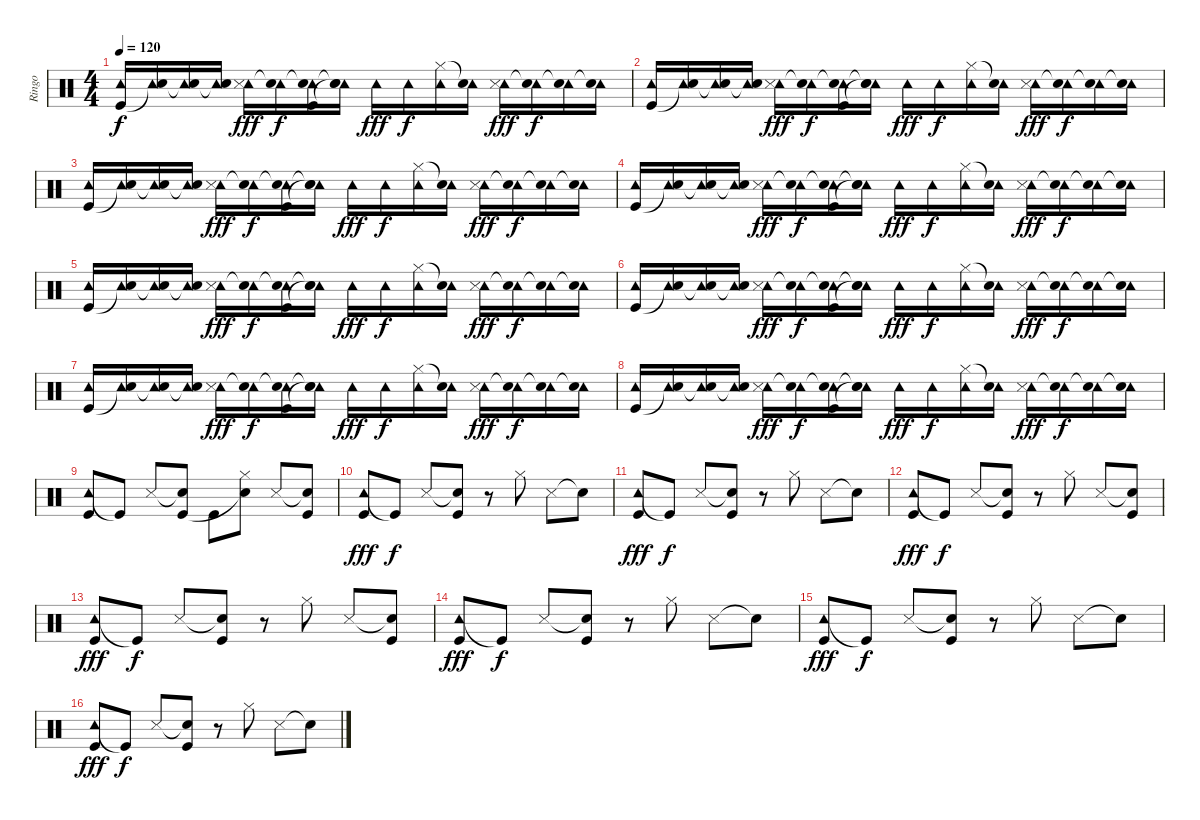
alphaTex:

\track ("Ringo" "Ringo") {instrument percussion}
\staff {score}
\articulation defaults
\ts (4 4)
\tempo 120
\clef neutral
\ks c
("Tambourine (hit)" "Kick (hit)").16{dy f} ("Tambourine (hit)" "Snare (hit)"{t}).16 ("Tambourine (hit)" "Snare (hit)"{t}).16 ("Tambourine (hit)" "Snare (hit)"{t}).16 ("Tambourine (hit)" "Snare (side stick) 3").16{dy fff} ("Tambourine (hit)" "Snare (hit)"{t}).16{dy f} ("Tambourine (hit)" "Snare (hit)"{t} "Kick (hit)").16 ("Tambourine (hit)" "Snare (hit)"{t} "Snare (hit)"{t}).16 "Tambourine (hit)".16{dy fff} "Tambourine (hit)".16{dy f} ("Tambourine (hit)" "Hi-Hat (closed)").16 ("Tambourine (hit)" "Snare (hit)"{t}).16 ("Tambourine (hit)" "Snare (side stick) 3").16{dy fff} ("Tambourine (hit)" "Snare (hit)"{t}).16{dy f} ("Tambourine (hit)" "Snare (hit)"{t}).16 ("Tambourine (hit)" "Snare (hit)"{t}).16 |
("Tambourine (hit)" "Kick (hit)").16 ("Tambourine (hit)" "Snare (hit)"{t}).16 ("Tambourine (hit)" "Snare (hit)"{t}).16 ("Tambourine (hit)" "Snare (hit)"{t}).16 ("Tambourine (hit)" "Snare (side stick) 3").16{dy fff} ("Tambourine (hit)" "Snare (hit)"{t}).16{dy f} ("Tambourine (hit)" "Snare (hit)"{t} "Kick (hit)").16 ("Tambourine (hit)" "Snare (hit)"{t} "Snare (hit)"{t}).16 "Tambourine (hit)".16{dy fff} "Tambourine (hit)".16{dy f} ("Tambourine (hit)" "Hi-Hat (closed)").16 ("Tambourine (hit)" "Snare (hit)"{t}).16 ("Tambourine (hit)" "Snare (side stick) 3").16{dy fff} ("Tambourine (hit)" "Snare (hit)"{t}).16{dy f} ("Tambourine (hit)" "Snare (hit)"{t}).16 ("Tambourine (hit)" "Snare (hit)"{t}).16 |
("Tambourine (hit)" "Kick (hit)").16 ("Tambourine (hit)" "Snare (hit)"{t}).16 ("Tambourine (hit)" "Snare (hit)"{t}).16 ("Tambourine (hit)" "Snare (hit)"{t}).16 ("Tambourine (hit)" "Snare (side stick) 3").16{dy fff} ("Tambourine (hit)" "Snare (hit)"{t}).16{dy f} ("Tambourine (hit)" "Snare (hit)"{t} "Kick (hit)").16 ("Tambourine (hit)" "Snare (hit)"{t} "Snare (hit)"{t}).16 "Tambourine (hit)".16{dy fff} "Tambourine (hit)".16{dy f} ("Tambourine (hit)" "Hi-Hat (closed)").16 ("Tambourine (hit)" "Snare (hit)"{t}).16 ("Tambourine (hit)" "Snare (side stick) 3").16{dy fff} ("Tambourine (hit)" "Snare (hit)"{t}).16{dy f} ("Tambourine (hit)" "Snare (hit)"{t}).16 ("Tambourine (hit)" "Snare (hit)"{t}).16 |
("Tambourine (hit)" "Kick (hit)").16 ("Tambourine (hit)" "Snare (hit)"{t}).16 ("Tambourine (hit)" "Snare (hit)"{t}).16 ("Tambourine (hit)" "Snare (hit)"{t}).16 ("Tambourine (hit)" "Snare (side stick) 3").16{dy fff} ("Tambourine (hit)" "Snare (hit)"{t}).16{dy f} ("Tambourine (hit)" "Snare (hit)"{t} "Kick (hit)").16 ("Tambourine (hit)" "Snare (hit)"{t} "Snare (hit)"{t}).16 "Tambourine (hit)".16{dy fff} "Tambourine (hit)".16{dy f} ("Tambourine (hit)" "Hi-Hat (closed)").16 ("Tambourine (hit)" "Snare (hit)"{t}).16 ("Tambourine (hit)" "Snare (side stick) 3").16{dy fff} ("Tambourine (hit)" "Snare (hit)"{t}).16{dy f} ("Tambourine (hit)" "Snare (hit)"{t}).16 ("Tambourine (hit)" "Snare (hit)"{t}).16 |
("Tambourine (hit)" "Kick (hit)").16 ("Tambourine (hit)" "Snare (hit)"{t}).16 ("Tambourine (hit)" "Snare (hit)"{t}).16 ("Tambourine (hit)" "Snare (hit)"{t}).16 ("Tambourine (hit)" "Snare (side stick) 3").16{dy fff} ("Tambourine (hit)" "Snare (hit)"{t}).16{dy f} ("Tambourine (hit)" "Snare (hit)"{t} "Kick (hit)").16 ("Tambourine (hit)" "Snare (hit)"{t} "Snare (hit)"{t}).16 "Tambourine (hit)".16{dy fff} "Tambourine (hit)".16{dy f} ("Tambourine (hit)" "Hi-Hat (closed)").16 ("Tambourine (hit)" "Snare (hit)"{t}).16 ("Tambourine (hit)" "Snare (side stick) 3").16{dy fff} ("Tambourine (hit)" "Snare (hit)"{t}).16{dy f} ("Tambourine (hit)" "Snare (hit)"{t}).16 ("Tambourine (hit)" "Snare (hit)"{t}).16 |
("Tambourine (hit)" "Kick (hit)").16 ("Tambourine (hit)" "Snare (hit)"{t}).16 ("Tambourine (hit)" "Snare (hit)"{t}).16 ("Tambourine (hit)" "Snare (hit)"{t}).16 ("Tambourine (hit)" "Snare (side stick) 3").16{dy fff} ("Tambourine (hit)" "Snare (hit)"{t}).16{dy f} ("Tambourine (hit)" "Snare (hit)"{t} "Kick (hit)").16 ("Tambourine (hit)" "Snare (hit)"{t} "Snare (hit)"{t}).16 "Tambourine (hit)".16{dy fff} "Tambourine (hit)".16{dy f} ("Tambourine (hit)" "Hi-Hat (closed)").16 ("Tambourine (hit)" "Snare (hit)"{t}).16 ("Tambourine (hit)" "Snare (side stick) 3").16{dy fff} ("Tambourine (hit)" "Snare (hit)"{t}).16{dy f} ("Tambourine (hit)" "Snare (hit)"{t}).16 ("Tambourine (hit)" "Snare (hit)"{t}).16 |
("Tambourine (hit)" "Kick (hit)").16 ("Tambourine (hit)" "Snare (hit)"{t}).16 ("Tambourine (hit)" "Snare (hit)"{t}).16 ("Tambourine (hit)" "Snare (hit)"{t}).16 ("Tambourine (hit)" "Snare (side stick) 3").16{dy fff} ("Tambourine (hit)" "Snare (hit)"{t}).16{dy f} ("Tambourine (hit)" "Snare (hit)"{t} "Kick (hit)").16 ("Tambourine (hit)" "Snare (hit)"{t} "Snare (hit)"{t}).16 "Tambourine (hit)".16{dy fff} "Tambourine (hit)".16{dy f} ("Tambourine (hit)" "Hi-Hat (closed)").16 ("Tambourine (hit)" "Snare (hit)"{t}).16 ("Tambourine (hit)" "Snare (side stick) 3").16{dy fff} ("Tambourine (hit)" "Snare (hit)"{t}).16{dy f} ("Tambourine (hit)" "Snare (hit)"{t}).16 ("Tambourine (hit)" "Snare (hit)"{t}).16 |
("Tambourine (hit)" "Kick (hit)").16 ("Tambourine (hit)" "Snare (hit)"{t}).16 ("Tambourine (hit)" "Snare (hit)"{t}).16 ("Tambourine (hit)" "Snare (hit)"{t}).16 ("Tambourine (hit)" "Snare (side stick) 3").16{dy fff} ("Tambourine (hit)" "Snare (hit)"{t}).16{dy f} ("Tambourine (hit)" "Snare (hit)"{t} "Kick (hit)").16 ("Tambourine (hit)" "Snare (hit)"{t} "Snare (hit)"{t}).16 "Tambourine (hit)".16{dy fff} "Tambourine (hit)".16{dy f} ("Tambourine (hit)" "Hi-Hat (closed)").16 ("Tambourine (hit)" "Snare (hit)"{t}).16 ("Tambourine (hit)" "Snare (side stick) 3").16{dy fff} ("Tambourine (hit)" "Snare (hit)"{t}).16{dy f} ("Tambourine (hit)" "Snare (hit)"{t}).16 ("Tambourine (hit)" "Snare (hit)"{t}).16 |
("Tambourine (hit)" "Kick (hit)").8 "Kick (hit)"{t}.8 "Snare (side stick) 3".8 ("Snare (hit)"{t} "Kick (hit)").8 "Kick (hit)".8 ("Hi-Hat (closed)" "Snare (hit)"{t}).8 "Snare (side stick) 3".8 ("Snare (hit)"{t} "Kick (hit)").8 |
("Tambourine (hit)" "Kick (hit)").8{dy fff} "Kick (hit)"{t}.8{dy f} "Snare (side stick) 3".8 ("Snare (hit)"{t} "Kick (hit)").8 r.8 "Hi-Hat (closed)".8 "Snare (side stick) 3".8 "Snare (hit)"{t}.8 |
("Tambourine (hit)" "Kick (hit)").8{dy fff} "Kick (hit)"{t}.8{dy f} "Snare (side stick) 3".8 ("Snare (hit)"{t} "Kick (hit)").8 r.8 "Hi-Hat (closed)".8 "Snare (side stick) 3".8 "Snare (hit)"{t}.8 |
("Tambourine (hit)" "Kick (hit)").8{dy fff} "Kick (hit)"{t}.8{dy f} "Snare (side stick) 3".8 ("Snare (hit)"{t} "Kick (hit)").8 r.8 "Hi-Hat (closed)".8 "Snare (side stick) 3".8 ("Snare (hit)"{t} "Kick (hit)").8 |
("Tambourine (hit)" "Kick (hit)").8{dy fff} "Kick (hit)"{t}.8{dy f} "Snare (side stick) 3".8 ("Snare (hit)"{t} "Kick (hit)").8 r.8 "Hi-Hat (closed)".8 "Snare (side stick) 3".8 ("Snare (hit)"{t} "Kick (hit)").8 |
("Tambourine (hit)" "Kick (hit)").8{dy fff} "Kick (hit)"{t}.8{dy f} "Snare (side stick) 3".8 ("Snare (hit)"{t} "Kick (hit)").8 r.8 "Hi-Hat (closed)".8 "Snare (side stick) 3".8 "Snare (hit)"{t}.8 |
("Tambourine (hit)" "Kick (hit)").8{dy fff} "Kick (hit)"{t}.8{dy f} "Snare (side stick) 3".8 ("Snare (hit)"{t} "Kick (hit)").8 r.8 "Hi-Hat (closed)".8 "Snare (side stick) 3".8 "Snare (hit)"{t}.8 |
("Tambourine (hit)" "Kick (hit)").8{dy fff} "Kick (hit)"{t}.8{dy f} "Snare (side stick) 3".8 ("Snare (hit)"{t} "Kick (hit)").8 r.8 "Hi-Hat (closed)".8 "Snare (side stick) 3".8 "Snare (hit)"{t}.8
